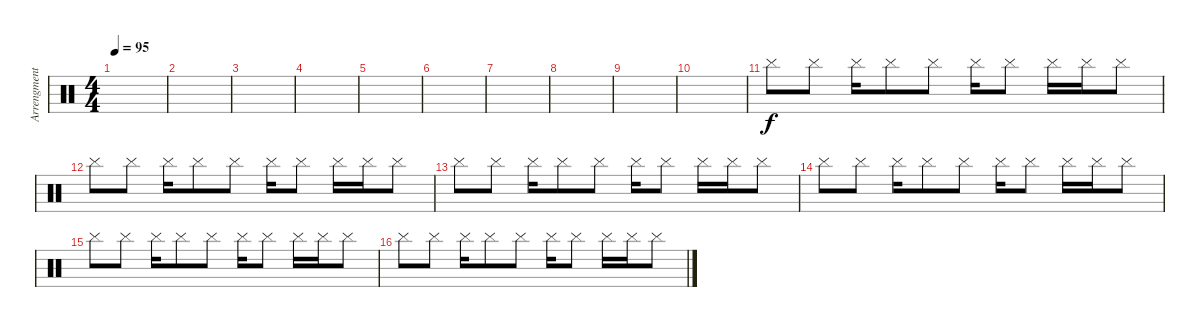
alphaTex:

\track ("Arrengments" "Arrengment") {instrument percussion}
\staff {score}
\articulation defaults
\ts (4 4)
\tempo 95
\clef neutral
\ks c
|
|
|
|
|
|
|
|
|
|
"Cymbal (hit)".8 "Cymbal (hit)".8 "Cymbal (hit)".16 "Cymbal (hit)".8 "Cymbal (hit)".8 "Cymbal (hit)".16 "Cymbal (hit)".8 "Cymbal (hit)".16 "Cymbal (hit)".16 "Cymbal (hit)".8 |
"Cymbal (hit)".8 "Cymbal (hit)".8 "Cymbal (hit)".16 "Cymbal (hit)".8 "Cymbal (hit)".8 "Cymbal (hit)".16 "Cymbal (hit)".8 "Cymbal (hit)".16 "Cymbal (hit)".16 "Cymbal (hit)".8 |
"Cymbal (hit)".8 "Cymbal (hit)".8 "Cymbal (hit)".16 "Cymbal (hit)".8 "Cymbal (hit)".8 "Cymbal (hit)".16 "Cymbal (hit)".8 "Cymbal (hit)".16 "Cymbal (hit)".16 "Cymbal (hit)".8 |
"Cymbal (hit)".8 "Cymbal (hit)".8 "Cymbal (hit)".16 "Cymbal (hit)".8 "Cymbal (hit)".8 "Cymbal (hit)".16 "Cymbal (hit)".8 "Cymbal (hit)".16 "Cymbal (hit)".16 "Cymbal (hit)".8 |
"Cymbal (hit)".8 "Cymbal (hit)".8 "Cymbal (hit)".16 "Cymbal (hit)".8 "Cymbal (hit)".8 "Cymbal (hit)".16 "Cymbal (hit)".8 "Cymbal (hit)".16 "Cymbal (hit)".16 "Cymbal (hit)".8 |
"Cymbal (hit)".8 "Cymbal (hit)".8 "Cymbal (hit)".16 "Cymbal (hit)".8 "Cymbal (hit)".8 "Cymbal (hit)".16 "Cymbal (hit)".8 "Cymbal (hit)".16 "Cymbal (hit)".16 "Cymbal (hit)".8
